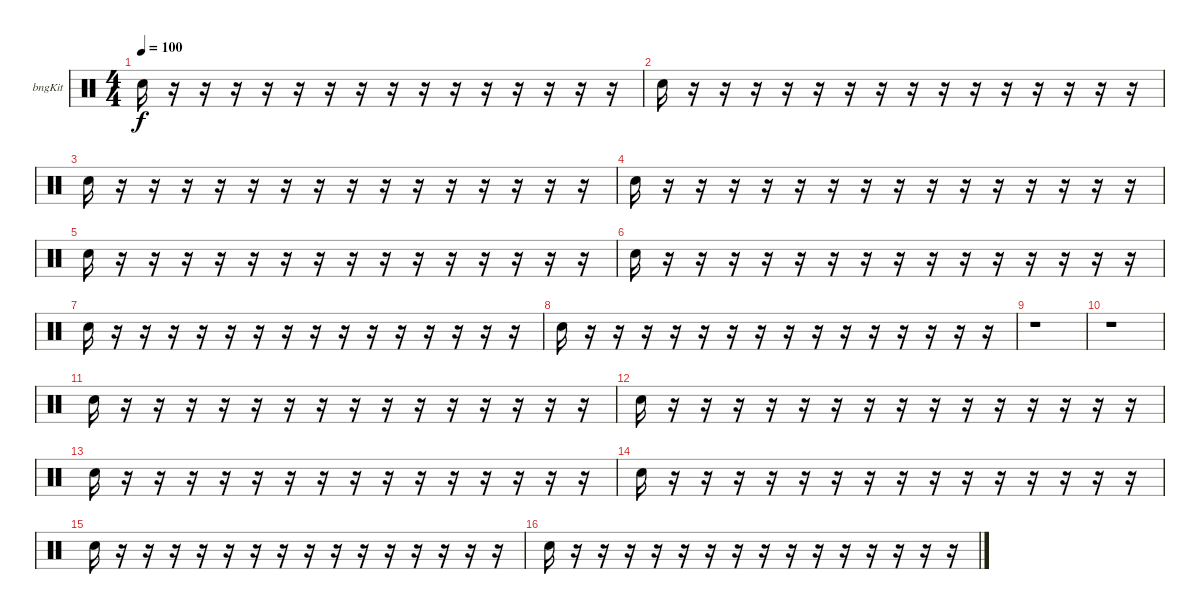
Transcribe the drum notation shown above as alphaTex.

\bracketExtendMode groupsimilarinstruments
\firstSystemTrackNameOrientation horizontal
\otherSystemsTrackNameOrientation horizontal
\track ("Bongos" "bngKit") {instrument percussion}
\staff {score}
\articulation defaults
\ts (4 4)
\tempo 100
\clef neutral
\ks c "Snare (hit) 2".16{dy f}
r.16 r.16 r.16 r.16 r.16 r.16 r.16 r.16 r.16 r.16 r.16 r.16 r.16 r.16 r.16 |
"Snare (hit) 2".16 r.16 r.16 r.16 r.16 r.16 r.16 r.16 r.16 r.16 r.16 r.16 r.16 r.16 r.16 r.16 |
"Snare (hit) 2".16 r.16 r.16 r.16 r.16 r.16 r.16 r.16 r.16 r.16 r.16 r.16 r.16 r.16 r.16 r.16 |
"Snare (hit) 2".16 r.16 r.16 r.16 r.16 r.16 r.16 r.16 r.16 r.16 r.16 r.16 r.16 r.16 r.16 r.16 |
"Snare (hit) 2".16 r.16 r.16 r.16 r.16 r.16 r.16 r.16 r.16 r.16 r.16 r.16 r.16 r.16 r.16 r.16 |
"Snare (hit) 2".16 r.16 r.16 r.16 r.16 r.16 r.16 r.16 r.16 r.16 r.16 r.16 r.16 r.16 r.16 r.16 |
"Snare (hit) 2".16 r.16 r.16 r.16 r.16 r.16 r.16 r.16 r.16 r.16 r.16 r.16 r.16 r.16 r.16 r.16 |
"Snare (hit) 2".16 r.16 r.16 r.16 r.16 r.16 r.16 r.16 r.16 r.16 r.16 r.16 r.16 r.16 r.16 r.16 |
r.1 |
r.1 |
"Snare (hit) 2".16 r.16 r.16 r.16 r.16 r.16 r.16 r.16 r.16 r.16 r.16 r.16 r.16 r.16 r.16 r.16 |
"Snare (hit) 2".16 r.16 r.16 r.16 r.16 r.16 r.16 r.16 r.16 r.16 r.16 r.16 r.16 r.16 r.16 r.16 |
"Snare (hit) 2".16 r.16 r.16 r.16 r.16 r.16 r.16 r.16 r.16 r.16 r.16 r.16 r.16 r.16 r.16 r.16 |
"Snare (hit) 2".16 r.16 r.16 r.16 r.16 r.16 r.16 r.16 r.16 r.16 r.16 r.16 r.16 r.16 r.16 r.16 |
"Snare (hit) 2".16 r.16 r.16 r.16 r.16 r.16 r.16 r.16 r.16 r.16 r.16 r.16 r.16 r.16 r.16 r.16 |
"Snare (hit) 2".16 r.16 r.16 r.16 r.16 r.16 r.16 r.16 r.16 r.16 r.16 r.16 r.16 r.16 r.16 r.16
